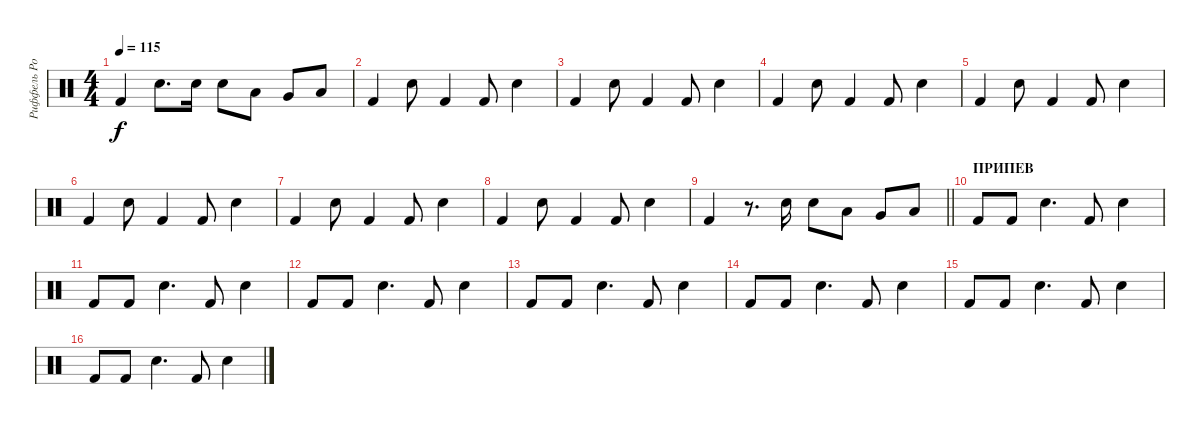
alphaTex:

\track ("Риффель Роман(Главные)" "Риффель Ро") {instrument percussion}
\staff {score}
\articulation defaults
\ts (4 4)
\tempo 115
\clef neutral
\ks c "Kick (hit) 2".4{dy f} "Electric Snare (hit)".8{d} "Electric Snare (hit)".16 "Electric Snare (hit)".8 "Low Tom (hit)".8 "Very Low Tom (hit)".8 "Low Floor Tom (hit)".8
|
"Kick (hit) 2".4 "Electric Snare (hit)".8 "Kick (hit) 2".4 "Kick (hit) 2".8 "Electric Snare (hit)".4 |
"Kick (hit) 2".4 "Electric Snare (hit)".8 "Kick (hit) 2".4 "Kick (hit) 2".8 "Electric Snare (hit)".4 |
"Kick (hit) 2".4 "Electric Snare (hit)".8 "Kick (hit) 2".4 "Kick (hit) 2".8 "Electric Snare (hit)".4 |
"Kick (hit) 2".4 "Electric Snare (hit)".8 "Kick (hit) 2".4 "Kick (hit) 2".8 "Electric Snare (hit)".4 |
"Kick (hit) 2".4 "Electric Snare (hit)".8 "Kick (hit) 2".4 "Kick (hit) 2".8 "Electric Snare (hit)".4 |
"Kick (hit) 2".4 "Electric Snare (hit)".8 "Kick (hit) 2".4 "Kick (hit) 2".8 "Electric Snare (hit)".4 |
"Kick (hit) 2".4 "Electric Snare (hit)".8 "Kick (hit) 2".4 "Kick (hit) 2".8 "Electric Snare (hit)".4 |
\barLineRight lightlight "Kick (hit) 2".4
r.8{d} "Electric Snare (hit)".16 "Electric Snare (hit)".8 "Low Tom (hit)".8 "Very Low Tom (hit)".8 "Low Floor Tom (hit)".8 |
\section ("" "ПРИПЕВ")
"Kick (hit) 2".8 "Kick (hit) 2".8 "Electric Snare (hit)".4{d} "Kick (hit) 2".8 "Electric Snare (hit)".4 |
"Kick (hit) 2".8 "Kick (hit) 2".8 "Electric Snare (hit)".4{d} "Kick (hit) 2".8 "Electric Snare (hit)".4 |
"Kick (hit) 2".8 "Kick (hit) 2".8 "Electric Snare (hit)".4{d} "Kick (hit) 2".8 "Electric Snare (hit)".4 |
"Kick (hit) 2".8 "Kick (hit) 2".8 "Electric Snare (hit)".4{d} "Kick (hit) 2".8 "Electric Snare (hit)".4 |
"Kick (hit) 2".8 "Kick (hit) 2".8 "Electric Snare (hit)".4{d} "Kick (hit) 2".8 "Electric Snare (hit)".4 |
"Kick (hit) 2".8 "Kick (hit) 2".8 "Electric Snare (hit)".4{d} "Kick (hit) 2".8 "Electric Snare (hit)".4 |
"Kick (hit) 2".8 "Kick (hit) 2".8 "Electric Snare (hit)".4{d} "Kick (hit) 2".8 "Electric Snare (hit)".4
